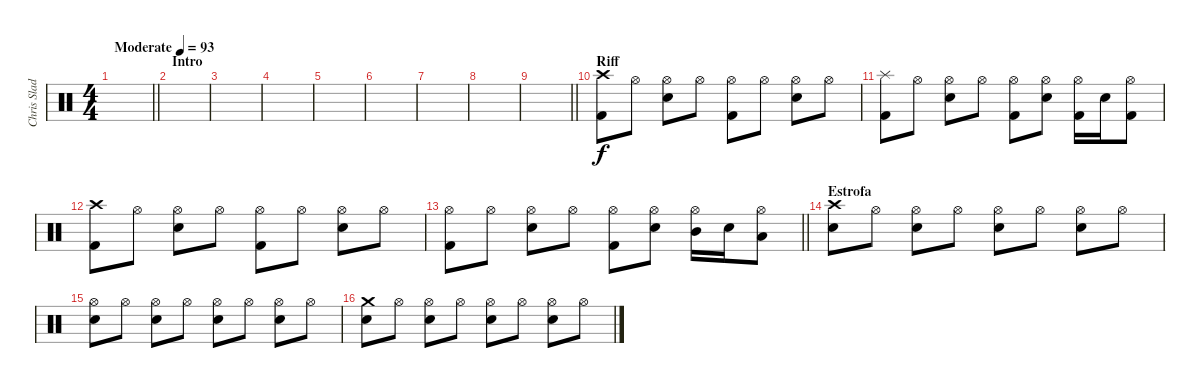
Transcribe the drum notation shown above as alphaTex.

\track ("Chris Slade" "Chris Slad") {instrument percussion}
\staff {score}
\articulation defaults
\ts (4 4)
\tempo (93 "Moderate")
\clef neutral
\barLineRight lightlight
\ks c
|
\section ("" "Intro")
|
|
|
|
|
|
|
\barLineRight lightlight
|
\section ("" "Riff")
("Kick (hit) 2" "Crash high (hit)").8 "Hi-Hat (open)".8 ("Snare (hit) 2" "Hi-Hat (open)").8 "Hi-Hat (open)".8 ("Kick (hit) 2" "Hi-Hat (open)").8 "Hi-Hat (open)".8 ("Snare (hit) 2" "Hi-Hat (open)").8 "Hi-Hat (open)".8 |
("Kick (hit) 2" "Splash (hit)").8 "Hi-Hat (open)".8 ("Snare (hit) 2" "Hi-Hat (open)").8 "Hi-Hat (open)".8 ("Kick (hit) 2" "Hi-Hat (open)").8 ("Snare (hit) 2" "Hi-Hat (open)").8 ("Kick (hit) 2" "Hi-Hat (open)").16 "Snare (hit) 2".16 ("Kick (hit) 2" "Hi-Hat (open)").8 |
("Kick (hit) 2" "Crash high (hit)").8 "Hi-Hat (open)".8 ("Snare (hit) 2" "Hi-Hat (open)").8 "Hi-Hat (open)".8 ("Kick (hit) 2" "Hi-Hat (open)").8 "Hi-Hat (open)".8 ("Snare (hit) 2" "Hi-Hat (open)").8 "Hi-Hat (open)".8 |
\barLineRight lightlight
("Kick (hit) 2" "Hi-Hat (open)").8 "Hi-Hat (open)".8 ("Snare (hit) 2" "Hi-Hat (open)").8 "Hi-Hat (open)".8 ("Kick (hit) 2" "Hi-Hat (open)").8 ("Snare (hit) 2" "Hi-Hat (open)").8 ("Mid Tom (hit)" "Hi-Hat (open)").16 "Snare (hit) 2".16 ("Low Tom (hit)" "Hi-Hat (open)").8 |
\section ("" "Estrofa")
("Crash high (hit)" "Snare (hit) 2").8 "Hi-Hat (open)".8 ("Snare (hit) 2" "Hi-Hat (open)").8 "Hi-Hat (open)".8 ("Snare (hit) 2" "Hi-Hat (open)").8 "Hi-Hat (open)".8 ("Snare (hit) 2" "Hi-Hat (open)").8 "Hi-Hat (open)".8 |
("Snare (hit) 2" "Hi-Hat (open)").8 "Hi-Hat (open)".8 ("Snare (hit) 2" "Hi-Hat (open)").8 "Hi-Hat (open)".8 ("Snare (hit) 2" "Hi-Hat (open)").8 "Hi-Hat (open)".8 ("Snare (hit) 2" "Hi-Hat (open)").8 "Hi-Hat (open)".8 |
("Crash medium (hit)" "Snare (hit) 2").8 "Hi-Hat (open)".8 ("Snare (hit) 2" "Hi-Hat (open)").8 "Hi-Hat (open)".8 ("Snare (hit) 2" "Hi-Hat (open)").8 "Hi-Hat (open)".8 ("Snare (hit) 2" "Hi-Hat (open)").8 "Hi-Hat (open)".8
